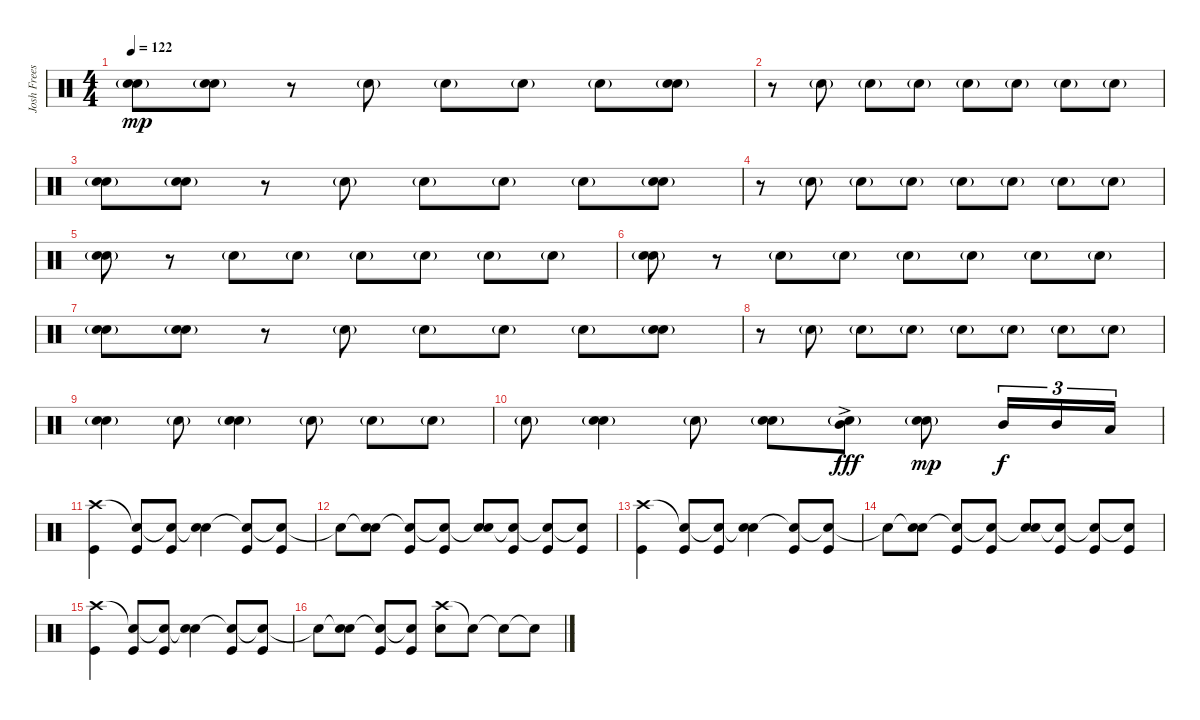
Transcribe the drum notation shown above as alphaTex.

\track ("Josh Freese" "Josh Frees") {instrument percussion}
\staff {score}
\articulation defaults
\ts (4 4)
\tempo 122
\clef neutral
\ks c
("Snare (hit) 2"{g} "Electric Snare (hit)"{g}).8{dy mp volume 8} ("Snare (hit) 2"{g} "Electric Snare (hit)"{g}).8 r.8 "Electric Snare (hit)"{g}.8 "Electric Snare (hit)"{g}.8 "Electric Snare (hit)"{g}.8 "Electric Snare (hit)"{g}.8 ("Snare (hit) 2"{g} "Electric Snare (hit)"{g}).8 |
r.8 "Electric Snare (hit)"{g}.8 "Electric Snare (hit)"{g}.8 "Electric Snare (hit)"{g}.8 "Electric Snare (hit)"{g}.8 "Electric Snare (hit)"{g}.8 "Electric Snare (hit)"{g}.8 "Electric Snare (hit)"{g}.8 |
("Snare (hit) 2"{g} "Electric Snare (hit)"{g}).8 ("Snare (hit) 2"{g} "Electric Snare (hit)"{g}).8 r.8 "Electric Snare (hit)"{g}.8 "Electric Snare (hit)"{g}.8 "Electric Snare (hit)"{g}.8 "Electric Snare (hit)"{g}.8 ("Snare (hit) 2"{g} "Electric Snare (hit)"{g}).8 |
r.8 "Electric Snare (hit)"{g}.8 "Electric Snare (hit)"{g}.8 "Electric Snare (hit)"{g}.8 "Electric Snare (hit)"{g}.8 "Electric Snare (hit)"{g}.8 "Electric Snare (hit)"{g}.8 "Electric Snare (hit)"{g}.8 |
("Snare (hit) 2"{g} "Electric Snare (hit)"{g}).8 r.8 "Electric Snare (hit)"{g}.8 "Electric Snare (hit)"{g}.8 "Electric Snare (hit)"{g}.8 "Electric Snare (hit)"{g}.8 "Electric Snare (hit)"{g}.8 "Electric Snare (hit)"{g}.8 |
("Snare (hit) 2"{g} "Electric Snare (hit)"{g}).8 r.8 "Electric Snare (hit)"{g}.8 "Electric Snare (hit)"{g}.8 "Electric Snare (hit)"{g}.8 "Electric Snare (hit)"{g}.8 "Electric Snare (hit)"{g}.8 "Electric Snare (hit)"{g}.8 |
("Snare (hit) 2"{g} "Electric Snare (hit)"{g}).8 ("Snare (hit) 2"{g} "Electric Snare (hit)"{g}).8 r.8 "Electric Snare (hit)"{g}.8 "Electric Snare (hit)"{g}.8 "Electric Snare (hit)"{g}.8 "Electric Snare (hit)"{g}.8 ("Snare (hit) 2"{g} "Electric Snare (hit)"{g}).8 |
r.8 "Electric Snare (hit)"{g}.8 "Electric Snare (hit)"{g}.8 "Electric Snare (hit)"{g}.8 "Electric Snare (hit)"{g}.8 "Electric Snare (hit)"{g}.8 "Electric Snare (hit)"{g}.8 "Electric Snare (hit)"{g}.8 |
("Snare (hit) 2"{g} "Electric Snare (hit)"{g}).4 "Electric Snare (hit)"{g}.8 ("Snare (hit) 2"{g} "Electric Snare (hit)"{g}).4 "Electric Snare (hit)"{g}.8 "Electric Snare (hit)"{g}.8 "Electric Snare (hit)"{g}.8 |
"Electric Snare (hit)"{g}.8 ("Snare (hit) 2"{g} "Electric Snare (hit)"{g}).4 "Electric Snare (hit)"{g}.8 ("Snare (hit) 2"{g} "Electric Snare (hit)"{g}).8 ("Electric Snare (hit)"{g} "Mid Tom (hit)"{ac}).8{dy fff} ("Snare (hit) 2"{g} "Electric Snare (hit)"{g}).8{dy mp} "Mid Tom (hit)".16{tu (3 2) dy f} "Mid Tom (hit)".16{tu (3 2)} "Low Tom (hit)".16{tu (3 2)} |
("Crash high (hit)" "Kick (hit)").4 ("Snare (hit)"{t} "Kick (hit)").8 ("Snare (hit)"{t} "Kick (hit)").8 ("Snare (hit)"{t} "Electric Snare (hit)").4 ("Snare (hit)"{t} "Kick (hit)").8 ("Snare (hit)"{t} "Kick (hit)").8 |
"Snare (hit)"{t}.8 ("Snare (hit)"{t} "Electric Snare (hit)").8 ("Snare (hit)"{t} "Kick (hit)").8 ("Snare (hit)"{t} "Kick (hit)").8 ("Snare (hit)"{t} "Electric Snare (hit)").8 ("Snare (hit)"{t} "Kick (hit)").8 ("Snare (hit)"{t} "Kick (hit)").8 ("Snare (hit)"{t} "Kick (hit)").8 |
("Crash high (hit)" "Kick (hit)").4 ("Snare (hit)"{t} "Kick (hit)").8 ("Snare (hit)"{t} "Kick (hit)").8 ("Snare (hit)"{t} "Electric Snare (hit)").4 ("Snare (hit)"{t} "Kick (hit)").8 ("Snare (hit)"{t} "Kick (hit)").8 |
"Snare (hit)"{t}.8 ("Snare (hit)"{t} "Electric Snare (hit)").8 ("Snare (hit)"{t} "Kick (hit)").8 ("Snare (hit)"{t} "Kick (hit)").8 ("Snare (hit)"{t} "Electric Snare (hit)").8 ("Snare (hit)"{t} "Kick (hit)").8 ("Snare (hit)"{t} "Kick (hit)").8 ("Snare (hit)"{t} "Kick (hit)").8 |
("Crash high (hit)" "Kick (hit)").4 ("Snare (hit)"{t} "Kick (hit)").8 ("Snare (hit)"{t} "Kick (hit)").8 ("Snare (hit)"{t} "Electric Snare (hit)").4 ("Snare (hit)"{t} "Kick (hit)").8 ("Snare (hit)"{t} "Kick (hit)").8 |
"Snare (hit)"{t}.8 ("Snare (hit)"{t} "Electric Snare (hit)").8 ("Snare (hit)"{t} "Kick (hit)").8 ("Snare (hit)"{t} "Kick (hit)").8 ("Crash high (hit)" "Electric Snare (hit)").8 "Snare (hit)"{t}.8 "Snare (hit)"{t}.8 "Snare (hit)"{t}.8
